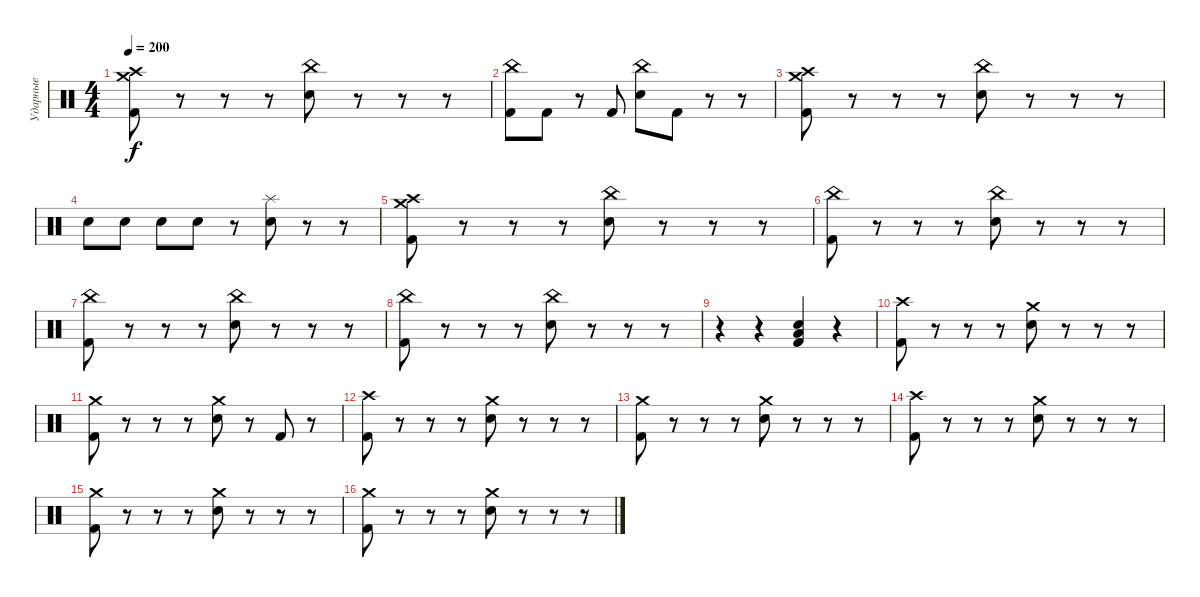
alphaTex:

\track ("Ударные" "Ударные") {instrument percussion}
\staff {score}
\articulation defaults
\ts (4 4)
\tempo 200
\clef neutral
\ks c
("Kick (hit) 2" "Crash high (hit)" "Crash medium (hit)").8{dy f} r.8 r.8 r.8 ("Electric Snare (hit)" "China (hit)").8 r.8 r.8 r.8 |
("Kick (hit) 2" "China (hit)").8 "Kick (hit) 2".8 r.8 "Kick (hit) 2".8 ("Electric Snare (hit)" "China (hit)").8 "Kick (hit) 2".8 r.8 r.8 |
("Kick (hit) 2" "Crash high (hit)" "Crash medium (hit)").8 r.8 r.8 r.8 ("Electric Snare (hit)" "China (hit)").8 r.8 r.8 r.8 |
"Electric Snare (hit)".8 "Electric Snare (hit)".8 "Electric Snare (hit)".8 "Electric Snare (hit)".8 r.8 ("Electric Snare (hit)" "Splash (hit)").8 r.8 r.8 |
("Kick (hit) 2" "Crash high (hit)" "Crash medium (hit)").8 r.8 r.8 r.8 ("Electric Snare (hit)" "China (hit)").8 r.8 r.8 r.8 |
("Kick (hit) 2" "China (hit)").8 r.8 r.8 r.8 ("Electric Snare (hit)" "China (hit)").8 r.8 r.8 r.8 |
("Kick (hit) 2" "China (hit)").8 r.8 r.8 r.8 ("Electric Snare (hit)" "China (hit)").8 r.8 r.8 r.8 |
("Kick (hit) 2" "China (hit)").8 r.8 r.8 r.8 ("Electric Snare (hit)" "China (hit)").8 r.8 r.8 r.8 |
r.4 r.4 ("Kick (hit) 2" "Low Floor Tom (hit)" "Electric Snare (hit)").4 r.4 |
("Kick (hit) 2" "Crash high (hit)").8 r.8 r.8 r.8 ("Electric Snare (hit)" "Crash medium (hit)").8 r.8 r.8 r.8 |
("Kick (hit) 2" "Crash medium (hit)").8 r.8 r.8 r.8 ("Electric Snare (hit)" "Crash medium (hit)").8 r.8 "Kick (hit) 2".8 r.8 |
("Kick (hit) 2" "Crash high (hit)").8 r.8 r.8 r.8 ("Electric Snare (hit)" "Crash medium (hit)").8 r.8 r.8 r.8 |
("Kick (hit) 2" "Crash medium (hit)").8 r.8 r.8 r.8 ("Electric Snare (hit)" "Crash medium (hit)").8 r.8 r.8 r.8 |
("Kick (hit) 2" "Crash high (hit)").8 r.8 r.8 r.8 ("Electric Snare (hit)" "Crash medium (hit)").8 r.8 r.8 r.8 |
("Kick (hit) 2" "Crash medium (hit)").8 r.8 r.8 r.8 ("Electric Snare (hit)" "Crash medium (hit)").8 r.8 r.8 r.8 |
("Kick (hit) 2" "Crash medium (hit)").8 r.8 r.8 r.8 ("Electric Snare (hit)" "Crash medium (hit)").8 r.8 r.8 r.8
